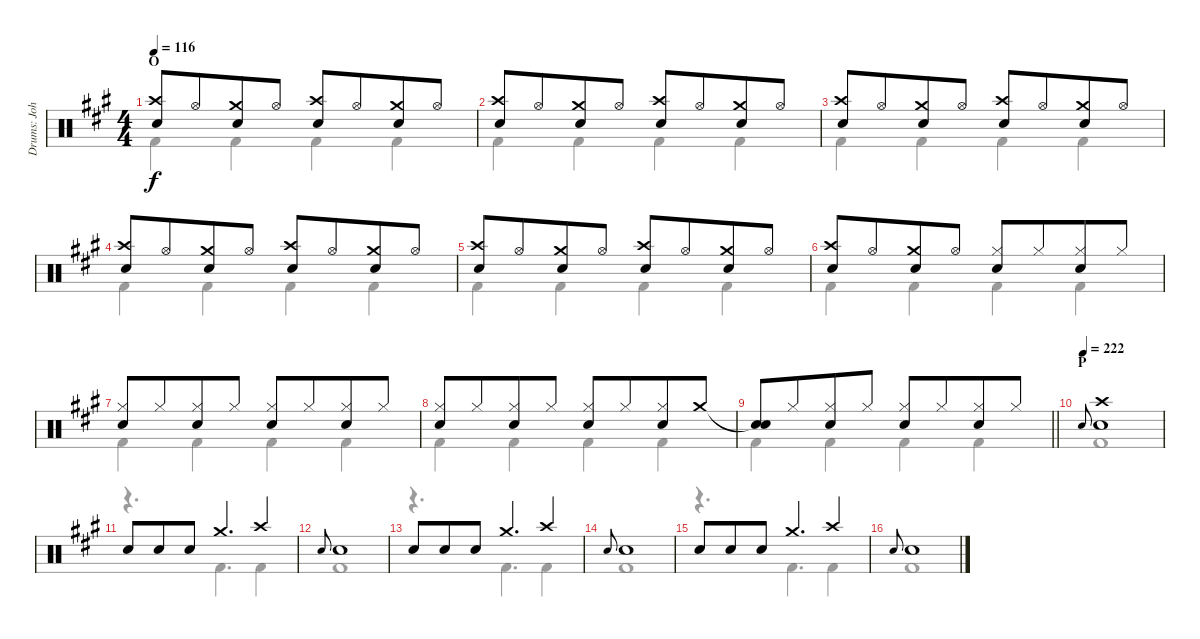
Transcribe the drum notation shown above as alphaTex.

\track ("Drums: John" "Drums: Joh") {instrument percussion}
\staff {score}
\articulation defaults
\voice
\ts (4 4)
\section ("" "O")
\tempo 116
\clef neutral
\ks a
("Crash high (hit)" "Electric Snare (hit)").8{dy f} "Hi-Hat (open)".8{beam merge} ("Crash medium (hit)" "Electric Snare (hit)").8 "Hi-Hat (open)".8 ("Crash high (hit)" "Electric Snare (hit)").8 "Hi-Hat (open)".8{beam merge} ("Crash medium (hit)" "Electric Snare (hit)").8 "Hi-Hat (open)".8 |
("Crash high (hit)" "Electric Snare (hit)").8 "Hi-Hat (open)".8{beam merge} ("Crash medium (hit)" "Electric Snare (hit)").8 "Hi-Hat (open)".8 ("Crash high (hit)" "Electric Snare (hit)").8 "Hi-Hat (open)".8{beam merge} ("Crash medium (hit)" "Electric Snare (hit)").8 "Hi-Hat (open)".8 |
("Crash high (hit)" "Electric Snare (hit)").8 "Hi-Hat (open)".8{beam merge} ("Crash medium (hit)" "Electric Snare (hit)").8 "Hi-Hat (open)".8 ("Crash high (hit)" "Electric Snare (hit)").8 "Hi-Hat (open)".8{beam merge} ("Crash medium (hit)" "Electric Snare (hit)").8 "Hi-Hat (open)".8 |
("Crash high (hit)" "Electric Snare (hit)").8 "Hi-Hat (open)".8{beam merge} ("Crash medium (hit)" "Electric Snare (hit)").8 "Hi-Hat (open)".8 ("Crash high (hit)" "Electric Snare (hit)").8 "Hi-Hat (open)".8{beam merge} ("Crash medium (hit)" "Electric Snare (hit)").8 "Hi-Hat (open)".8 |
("Crash high (hit)" "Electric Snare (hit)").8 "Hi-Hat (open)".8{beam merge} ("Crash medium (hit)" "Electric Snare (hit)").8 "Hi-Hat (open)".8 ("Crash high (hit)" "Electric Snare (hit)").8 "Hi-Hat (open)".8{beam merge} ("Crash medium (hit)" "Electric Snare (hit)").8 "Hi-Hat (open)".8 |
("Crash high (hit)" "Electric Snare (hit)").8 "Hi-Hat (open)".8{beam merge} ("Crash medium (hit)" "Electric Snare (hit)").8 "Hi-Hat (open)".8 ("Hi-Hat (closed)" "Electric Snare (hit)").8 "Hi-Hat (closed)".8{beam merge} ("Hi-Hat (closed)" "Electric Snare (hit)").8 "Hi-Hat (closed)".8 |
("Hi-Hat (closed)" "Electric Snare (hit)").8 "Hi-Hat (closed)".8{beam merge} ("Hi-Hat (closed)" "Electric Snare (hit)").8 "Hi-Hat (closed)".8 ("Hi-Hat (closed)" "Electric Snare (hit)").8 "Hi-Hat (closed)".8{beam merge} ("Hi-Hat (closed)" "Electric Snare (hit)").8 "Hi-Hat (closed)".8 |
("Hi-Hat (closed)" "Electric Snare (hit)").8 "Hi-Hat (closed)".8{beam merge} ("Hi-Hat (closed)" "Electric Snare (hit)").8 "Hi-Hat (closed)".8 ("Hi-Hat (closed)" "Electric Snare (hit)").8 "Hi-Hat (closed)".8{beam merge} ("Hi-Hat (closed)" "Electric Snare (hit)").8 "Crash medium (hit)".8 |
\barLineRight lightlight
("Snare (hit)"{t} "Electric Snare (hit)").8 "Hi-Hat (closed)".8{beam merge} ("Hi-Hat (closed)" "Electric Snare (hit)").8 "Hi-Hat (closed)".8 ("Hi-Hat (closed)" "Electric Snare (hit)").8 "Hi-Hat (closed)".8{beam merge} ("Hi-Hat (closed)" "Electric Snare (hit)").8 "Hi-Hat (closed)".8 |
\section ("" "P")
\tempo (222 0.03125)
"Snare (hit) 2".8{gr onbeat} ("Crash high (hit)" "Electric Snare (hit)").1 |
"Electric Snare (hit)".8 "Electric Snare (hit)".8{beam merge} "Electric Snare (hit)".8 "Crash medium (hit)".4{d} "Crash high (hit)".4 |
"Snare (hit) 2".8{gr onbeat} "Electric Snare (hit)".1 |
"Electric Snare (hit)".8 "Electric Snare (hit)".8{beam merge} "Electric Snare (hit)".8 "Crash medium (hit)".4{d} "Crash high (hit)".4 |
"Snare (hit) 2".8{gr onbeat} "Electric Snare (hit)".1 |
"Electric Snare (hit)".8 "Electric Snare (hit)".8{beam merge} "Electric Snare (hit)".8 "Crash medium (hit)".4{d} "Crash high (hit)".4 |
"Snare (hit) 2".8{gr onbeat} "Electric Snare (hit)".1
\voice
\clef neutral
\ottava regular
\simile none
\ks a "Kick (hit) 2".4{dy f} "Kick (hit) 2".4 "Kick (hit) 2".4 "Kick (hit) 2".4
|
"Kick (hit) 2".4 "Kick (hit) 2".4 "Kick (hit) 2".4 "Kick (hit) 2".4 |
"Kick (hit) 2".4 "Kick (hit) 2".4 "Kick (hit) 2".4 "Kick (hit) 2".4 |
"Kick (hit) 2".4 "Kick (hit) 2".4 "Kick (hit) 2".4 "Kick (hit) 2".4 |
"Kick (hit) 2".4 "Kick (hit) 2".4 "Kick (hit) 2".4 "Kick (hit) 2".4 |
"Kick (hit) 2".4 "Kick (hit) 2".4 "Kick (hit) 2".4 "Kick (hit) 2".4 |
"Kick (hit) 2".4 "Kick (hit) 2".4 "Kick (hit) 2".4 "Kick (hit) 2".4 |
"Kick (hit) 2".4 "Kick (hit) 2".4 "Kick (hit) 2".4 "Kick (hit) 2".4 |
\barLineRight lightlight "Kick (hit) 2".4 "Kick (hit) 2".4 "Kick (hit) 2".4 "Kick (hit) 2".4
|
"Kick (hit) 2".1 |
r.4{d} "Kick (hit) 2".4{d} "Kick (hit) 2".4 |
"Kick (hit) 2".1 |
r.4{d} "Kick (hit) 2".4{d} "Kick (hit) 2".4 |
"Kick (hit) 2".1 |
r.4{d} "Kick (hit) 2".4{d} "Kick (hit) 2".4 |
"Kick (hit) 2".1
